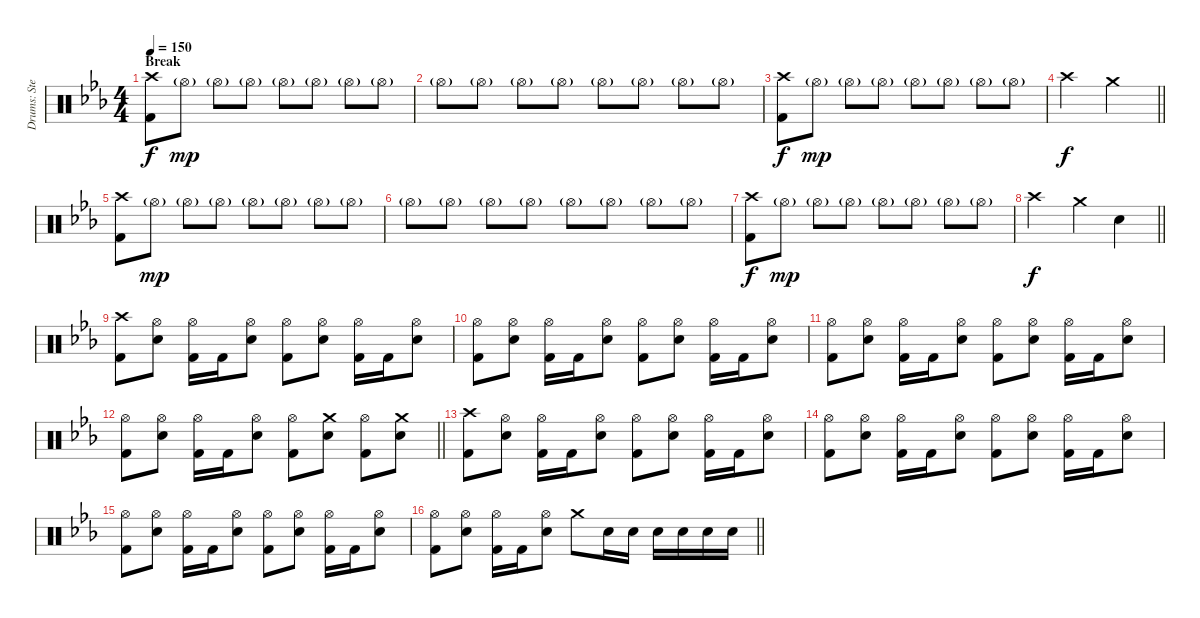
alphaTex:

\track ("Drums: Stefan Svantesson" "Drums: Ste") {instrument percussion}
\staff {score}
\articulation defaults
\ts (4 4)
\section ("" "Break")
\tempo 150
\clef neutral
\ks cminor
("Crash high (hit)" "Kick (hit) 2").8{dy f} "Hi-Hat (open)"{g}.8{dy mp} "Hi-Hat (open)"{g}.8 "Hi-Hat (open)"{g}.8 "Hi-Hat (open)"{g}.8 "Hi-Hat (open)"{g}.8 "Hi-Hat (open)"{g}.8 "Hi-Hat (open)"{g}.8 |
"Hi-Hat (open)"{g}.8 "Hi-Hat (open)"{g}.8 "Hi-Hat (open)"{g}.8 "Hi-Hat (open)"{g}.8 "Hi-Hat (open)"{g}.8 "Hi-Hat (open)"{g}.8 "Hi-Hat (open)"{g}.8 "Hi-Hat (open)"{g}.8 |
("Crash high (hit)" "Kick (hit) 2").8{dy f} "Hi-Hat (open)"{g}.8{dy mp} "Hi-Hat (open)"{g}.8 "Hi-Hat (open)"{g}.8 "Hi-Hat (open)"{g}.8 "Hi-Hat (open)"{g}.8 "Hi-Hat (open)"{g}.8 "Hi-Hat (open)"{g}.8 |
\barLineRight lightlight "Crash high (hit)".2{dy f} "Crash medium (hit)".2
|
("Crash high (hit)" "Kick (hit) 2").8 "Hi-Hat (open)"{g}.8{dy mp} "Hi-Hat (open)"{g}.8 "Hi-Hat (open)"{g}.8 "Hi-Hat (open)"{g}.8 "Hi-Hat (open)"{g}.8 "Hi-Hat (open)"{g}.8 "Hi-Hat (open)"{g}.8 |
"Hi-Hat (open)"{g}.8 "Hi-Hat (open)"{g}.8 "Hi-Hat (open)"{g}.8 "Hi-Hat (open)"{g}.8 "Hi-Hat (open)"{g}.8 "Hi-Hat (open)"{g}.8 "Hi-Hat (open)"{g}.8 "Hi-Hat (open)"{g}.8 |
("Crash high (hit)" "Kick (hit) 2").8{dy f} "Hi-Hat (open)"{g}.8{dy mp} "Hi-Hat (open)"{g}.8 "Hi-Hat (open)"{g}.8 "Hi-Hat (open)"{g}.8 "Hi-Hat (open)"{g}.8 "Hi-Hat (open)"{g}.8 "Hi-Hat (open)"{g}.8 |
\barLineRight lightlight "Crash high (hit)".2{dy f} "Crash medium (hit)".4 "Electric Snare (hit)".4
|
("Crash high (hit)" "Kick (hit) 2").8 ("Hi-Hat (open)" "Electric Snare (hit)").8 ("Hi-Hat (open)" "Kick (hit) 2").16 "Kick (hit) 2".16 ("Hi-Hat (open)" "Electric Snare (hit)").8 ("Hi-Hat (open)" "Kick (hit) 2").8 ("Hi-Hat (open)" "Electric Snare (hit)").8 ("Hi-Hat (open)" "Kick (hit) 2").16 "Kick (hit) 2".16 ("Hi-Hat (open)" "Electric Snare (hit)").8 |
("Hi-Hat (open)" "Kick (hit) 2").8 ("Hi-Hat (open)" "Electric Snare (hit)").8 ("Hi-Hat (open)" "Kick (hit) 2").16 "Kick (hit) 2".16 ("Hi-Hat (open)" "Electric Snare (hit)").8 ("Hi-Hat (open)" "Kick (hit) 2").8 ("Hi-Hat (open)" "Electric Snare (hit)").8 ("Hi-Hat (open)" "Kick (hit) 2").16 "Kick (hit) 2".16 ("Hi-Hat (open)" "Electric Snare (hit)").8 |
("Hi-Hat (open)" "Kick (hit) 2").8 ("Hi-Hat (open)" "Electric Snare (hit)").8 ("Hi-Hat (open)" "Kick (hit) 2").16 "Kick (hit) 2".16 ("Hi-Hat (open)" "Electric Snare (hit)").8 ("Hi-Hat (open)" "Kick (hit) 2").8 ("Hi-Hat (open)" "Electric Snare (hit)").8 ("Hi-Hat (open)" "Kick (hit) 2").16 "Kick (hit) 2".16 ("Hi-Hat (open)" "Electric Snare (hit)").8 |
\barLineRight lightlight
("Hi-Hat (open)" "Kick (hit) 2").8 ("Hi-Hat (open)" "Electric Snare (hit)").8 ("Hi-Hat (open)" "Kick (hit) 2").16 "Kick (hit) 2".16 ("Hi-Hat (open)" "Electric Snare (hit)").8 ("Hi-Hat (open)" "Kick (hit) 2").8 ("Crash medium (hit)" "Electric Snare (hit)").8 ("Hi-Hat (open)" "Kick (hit) 2").8 ("Crash medium (hit)" "Electric Snare (hit)").8 |
("Crash high (hit)" "Kick (hit) 2").8 ("Hi-Hat (open)" "Electric Snare (hit)").8 ("Hi-Hat (open)" "Kick (hit) 2").16 "Kick (hit) 2".16 ("Hi-Hat (open)" "Electric Snare (hit)").8 ("Hi-Hat (open)" "Kick (hit) 2").8 ("Hi-Hat (open)" "Electric Snare (hit)").8 ("Hi-Hat (open)" "Kick (hit) 2").16 "Kick (hit) 2".16 ("Hi-Hat (open)" "Electric Snare (hit)").8 |
("Hi-Hat (open)" "Kick (hit) 2").8 ("Hi-Hat (open)" "Electric Snare (hit)").8 ("Hi-Hat (open)" "Kick (hit) 2").16 "Kick (hit) 2".16 ("Hi-Hat (open)" "Electric Snare (hit)").8 ("Hi-Hat (open)" "Kick (hit) 2").8 ("Hi-Hat (open)" "Electric Snare (hit)").8 ("Hi-Hat (open)" "Kick (hit) 2").16 "Kick (hit) 2".16 ("Hi-Hat (open)" "Electric Snare (hit)").8 |
("Hi-Hat (open)" "Kick (hit) 2").8 ("Hi-Hat (open)" "Electric Snare (hit)").8 ("Hi-Hat (open)" "Kick (hit) 2").16 "Kick (hit) 2".16 ("Hi-Hat (open)" "Electric Snare (hit)").8 ("Hi-Hat (open)" "Kick (hit) 2").8 ("Hi-Hat (open)" "Electric Snare (hit)").8 ("Hi-Hat (open)" "Kick (hit) 2").16 "Kick (hit) 2".16 ("Hi-Hat (open)" "Electric Snare (hit)").8 |
\barLineRight lightlight
("Hi-Hat (open)" "Kick (hit) 2").8 ("Hi-Hat (open)" "Electric Snare (hit)").8 ("Hi-Hat (open)" "Kick (hit) 2").16 "Kick (hit) 2".16 ("Hi-Hat (open)" "Electric Snare (hit)").8 "Crash medium (hit)".8 "Electric Snare (hit)".16 "Electric Snare (hit)".16 "Electric Snare (hit)".16 "Electric Snare (hit)".16 "Electric Snare (hit)".16 "Electric Snare (hit)".16
